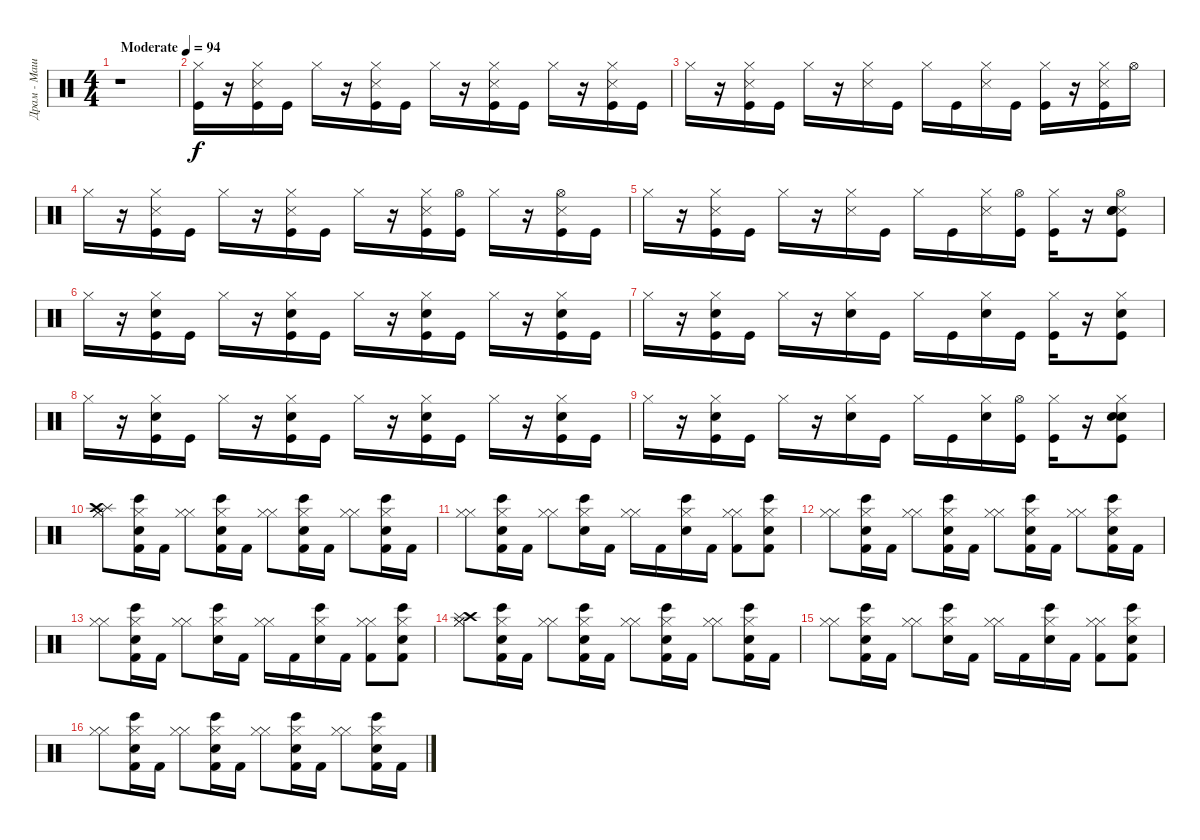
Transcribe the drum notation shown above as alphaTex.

\track ("Драм - Машина" "Драм - Маш") {instrument percussion}
\staff {score}
\articulation defaults
\ts (4 4)
\tempo (94 "Moderate")
\clef neutral
\ks c
r.1{dy f} |
("Hi-Hat (closed)" "Kick (hit)").16 r.16 ("Hi-Hat (closed)" "Snare (side stick) 3" "Kick (hit)").16 "Kick (hit)".16 "Hi-Hat (closed)".16 r.16 ("Snare (side stick) 3" "Hi-Hat (closed)" "Kick (hit)").16 "Kick (hit)".16 "Hi-Hat (closed)".16 r.16 ("Hi-Hat (closed)" "Snare (side stick) 3" "Kick (hit)").16 "Kick (hit)".16 "Hi-Hat (closed)".16 r.16 ("Hi-Hat (closed)" "Snare (side stick) 3" "Kick (hit)").16 "Kick (hit)".16 |
"Hi-Hat (closed)".16 r.16 ("Hi-Hat (closed)" "Snare (side stick) 3" "Kick (hit)").16 "Kick (hit)".16 "Hi-Hat (closed)".16 r.16 ("Snare (side stick) 3" "Hi-Hat (closed)").16 "Kick (hit)".16 "Hi-Hat (closed)".16 "Kick (hit)".16 ("Hi-Hat (closed)" "Snare (side stick) 3").16 "Kick (hit)".16 ("Hi-Hat (closed)" "Kick (hit)").16 r.16 ("Snare (side stick) 3" "Hi-Hat (closed)" "Kick (hit)").16 "Hi-Hat (open)".16 |
"Hi-Hat (closed)".16 r.16 ("Snare (side stick) 3" "Hi-Hat (closed)" "Kick (hit)").16 "Kick (hit)".16 "Hi-Hat (closed)".16 r.16 ("Hi-Hat (closed)" "Snare (side stick) 3" "Kick (hit)").16 "Kick (hit)".16 "Hi-Hat (closed)".16 r.16 ("Snare (side stick) 3" "Hi-Hat (closed)" "Kick (hit)").16 ("Hi-Hat (open)" "Kick (hit)").16 "Hi-Hat (closed)".16 r.16 ("Snare (side stick) 3" "Hi-Hat (open)" "Kick (hit)").16 "Kick (hit)".16 |
"Hi-Hat (closed)".16 r.16 ("Hi-Hat (closed)" "Snare (side stick) 3" "Kick (hit)").16 "Kick (hit)".16 "Hi-Hat (closed)".16 r.16 ("Hi-Hat (closed)" "Snare (side stick) 3").16 "Kick (hit)".16 "Hi-Hat (closed)".16 "Kick (hit)".16 ("Hi-Hat (closed)" "Snare (side stick) 3").16 ("Hi-Hat (open)" "Kick (hit)").16 ("Hi-Hat (closed)" "Kick (hit)").16 r.16 ("Hi-Hat (open)" "Snare (side stick) 3" "Electric Snare (hit)" "Snare (hit) 2" "Kick (hit)").8 |
"Hi-Hat (closed)".16 r.16 ("Snare (hit) 2" "Hi-Hat (closed)" "Kick (hit)").16 "Kick (hit)".16 "Hi-Hat (closed)".16 r.16 ("Snare (hit) 2" "Hi-Hat (closed)" "Kick (hit)").16 "Kick (hit)".16 "Hi-Hat (closed)".16 r.16 ("Snare (hit) 2" "Hi-Hat (closed)" "Kick (hit)").16 "Kick (hit)".16 "Hi-Hat (closed)".16 r.16 ("Snare (hit) 2" "Hi-Hat (closed)" "Kick (hit)").16 "Kick (hit)".16 |
"Hi-Hat (closed)".16 r.16 ("Hi-Hat (closed)" "Snare (hit) 2" "Kick (hit)").16 "Kick (hit)".16 "Hi-Hat (closed)".16 r.16 ("Snare (hit) 2" "Hi-Hat (closed)").16 "Kick (hit)".16 "Hi-Hat (closed)".16 "Kick (hit)".16 ("Snare (hit) 2" "Hi-Hat (closed)").16 "Kick (hit)".16 ("Hi-Hat (closed)" "Kick (hit)").16 r.16 ("Snare (hit) 2" "Hi-Hat (closed)" "Kick (hit)").8 |
"Hi-Hat (closed)".16 r.16 ("Hi-Hat (closed)" "Snare (hit) 2" "Kick (hit)").16 "Kick (hit)".16 "Hi-Hat (closed)".16 r.16 ("Snare (hit) 2" "Hi-Hat (closed)" "Kick (hit)").16 "Kick (hit)".16 "Hi-Hat (closed)".16 r.16 ("Snare (hit) 2" "Hi-Hat (closed)" "Kick (hit)").16 "Kick (hit)".16 "Hi-Hat (closed)".16 r.16 ("Snare (hit) 2" "Hi-Hat (closed)" "Kick (hit)").16 "Kick (hit)".16 |
"Hi-Hat (closed)".16 r.16 ("Hi-Hat (closed)" "Snare (hit) 2" "Kick (hit)").16 "Kick (hit)".16 "Hi-Hat (closed)".16 r.16 ("Snare (hit) 2" "Hi-Hat (closed)").16 "Kick (hit)".16 "Hi-Hat (closed)".16 "Kick (hit)".16 ("Snare (hit) 2" "Hi-Hat (closed)").16 ("Hi-Hat (open)" "Kick (hit)").16 ("Hi-Hat (closed)" "Kick (hit)").16 r.16 ("Hi-Hat (closed)" "Snare (hit) 2" "Electric Snare (hit)" "Kick (hit)").8 |
("Hi-Hat (closed)" "Splash (hit)" "Crash high (hit)" "Hi-Hat (closed)").8 ("Hi-Hat (closed)" "Snare (hit) 2" "Bongo High (hit)" "Kick (hit) 2").16 "Kick (hit) 2".16 ("Hi-Hat (closed)" "Hi-Hat (closed)").8 ("Hi-Hat (closed)" "Bongo High (hit)" "Snare (hit) 2" "Kick (hit) 2").16 "Kick (hit) 2".16 ("Hi-Hat (closed)" "Hi-Hat (closed)").8 ("Hi-Hat (closed)" "Snare (hit) 2" "Bongo High (hit)" "Kick (hit) 2").16 "Kick (hit) 2".16 ("Hi-Hat (closed)" "Hi-Hat (closed)").8 ("Snare (hit) 2" "Bongo High (hit)" "Hi-Hat (closed)" "Kick (hit) 2").16 "Kick (hit) 2".16 |
("Hi-Hat (closed)" "Hi-Hat (closed)").8 ("Bongo High (hit)" "Hi-Hat (closed)" "Snare (hit) 2" "Kick (hit) 2").16 "Kick (hit) 2".16 ("Hi-Hat (closed)" "Hi-Hat (closed)").8 ("Snare (hit) 2" "Bongo High (hit)" "Hi-Hat (closed)").16 "Kick (hit) 2".16 ("Hi-Hat (closed)" "Hi-Hat (closed)").16 "Kick (hit) 2".16 ("Hi-Hat (closed)" "Bongo High (hit)" "Snare (hit) 2").16 "Kick (hit) 2".16 ("Hi-Hat (closed)" "Hi-Hat (closed)" "Kick (hit) 2").8 ("Snare (hit) 2" "Bongo High (hit)" "Hi-Hat (closed)" "Kick (hit) 2").8 |
("Hi-Hat (closed)" "Hi-Hat (closed)").8 ("Bongo High (hit)" "Hi-Hat (closed)" "Snare (hit) 2" "Kick (hit) 2").16 "Kick (hit) 2".16 ("Hi-Hat (closed)" "Hi-Hat (closed)").8 ("Bongo High (hit)" "Snare (hit) 2" "Hi-Hat (closed)" "Kick (hit) 2").16 "Kick (hit) 2".16 ("Hi-Hat (closed)" "Hi-Hat (closed)").8 ("Snare (hit) 2" "Hi-Hat (closed)" "Bongo High (hit)" "Kick (hit) 2").16 "Kick (hit) 2".16 ("Hi-Hat (closed)" "Hi-Hat (closed)").8 ("Snare (hit) 2" "Bongo High (hit)" "Hi-Hat (closed)" "Kick (hit) 2").16 "Kick (hit) 2".16 |
("Hi-Hat (closed)" "Hi-Hat (closed)").8 ("Snare (hit) 2" "Hi-Hat (closed)" "Bongo High (hit)" "Kick (hit) 2").16 "Kick (hit) 2".16 ("Hi-Hat (closed)" "Hi-Hat (closed)").8 ("Bongo High (hit)" "Snare (hit) 2" "Hi-Hat (closed)").16 "Kick (hit) 2".16 ("Hi-Hat (closed)" "Hi-Hat (closed)").16 "Kick (hit) 2".16 ("Snare (hit) 2" "Bongo High (hit)" "Hi-Hat (closed)").16 "Kick (hit) 2".16 ("Hi-Hat (closed)" "Hi-Hat (closed)" "Kick (hit) 2").8 ("Hi-Hat (closed)" "Snare (hit) 2" "Bongo High (hit)" "Kick (hit) 2").8 |
("Crash high (hit)" "Hi-Hat (closed)" "Hi-Hat (closed)" "Splash (hit)").8 ("Bongo High (hit)" "Snare (hit) 2" "Hi-Hat (closed)" "Kick (hit) 2").16 "Kick (hit) 2".16 ("Hi-Hat (closed)" "Hi-Hat (closed)").8 ("Hi-Hat (closed)" "Bongo High (hit)" "Snare (hit) 2" "Kick (hit) 2").16 "Kick (hit) 2".16 ("Hi-Hat (closed)" "Hi-Hat (closed)").8 ("Bongo High (hit)" "Hi-Hat (closed)" "Snare (hit) 2" "Kick (hit) 2").16 "Kick (hit) 2".16 ("Hi-Hat (closed)" "Hi-Hat (closed)").8 ("Bongo High (hit)" "Snare (hit) 2" "Hi-Hat (closed)" "Kick (hit) 2").16 "Kick (hit) 2".16 |
("Hi-Hat (closed)" "Hi-Hat (closed)").8 ("Hi-Hat (closed)" "Bongo High (hit)" "Snare (hit) 2" "Kick (hit) 2").16 "Kick (hit) 2".16 ("Hi-Hat (closed)" "Hi-Hat (closed)").8 ("Bongo High (hit)" "Hi-Hat (closed)" "Snare (hit) 2").16 "Kick (hit) 2".16 ("Hi-Hat (closed)" "Hi-Hat (closed)").16 "Kick (hit) 2".16 ("Snare (hit) 2" "Hi-Hat (closed)" "Bongo High (hit)").16 "Kick (hit) 2".16 ("Hi-Hat (closed)" "Hi-Hat (closed)" "Kick (hit) 2").8 ("Hi-Hat (closed)" "Bongo High (hit)" "Snare (hit) 2" "Kick (hit) 2").8 |
("Hi-Hat (closed)" "Hi-Hat (closed)").8 ("Bongo High (hit)" "Hi-Hat (closed)" "Snare (hit) 2" "Kick (hit) 2").16 "Kick (hit) 2".16 ("Hi-Hat (closed)" "Hi-Hat (closed)").8 ("Bongo High (hit)" "Snare (hit) 2" "Hi-Hat (closed)" "Kick (hit) 2").16 "Kick (hit) 2".16 ("Hi-Hat (closed)" "Hi-Hat (closed)").8 ("Hi-Hat (closed)" "Bongo High (hit)" "Snare (hit) 2" "Kick (hit) 2").16 "Kick (hit) 2".16 ("Hi-Hat (closed)" "Hi-Hat (closed)").8 ("Hi-Hat (closed)" "Bongo High (hit)" "Snare (hit) 2" "Kick (hit) 2").16 "Kick (hit) 2".16
